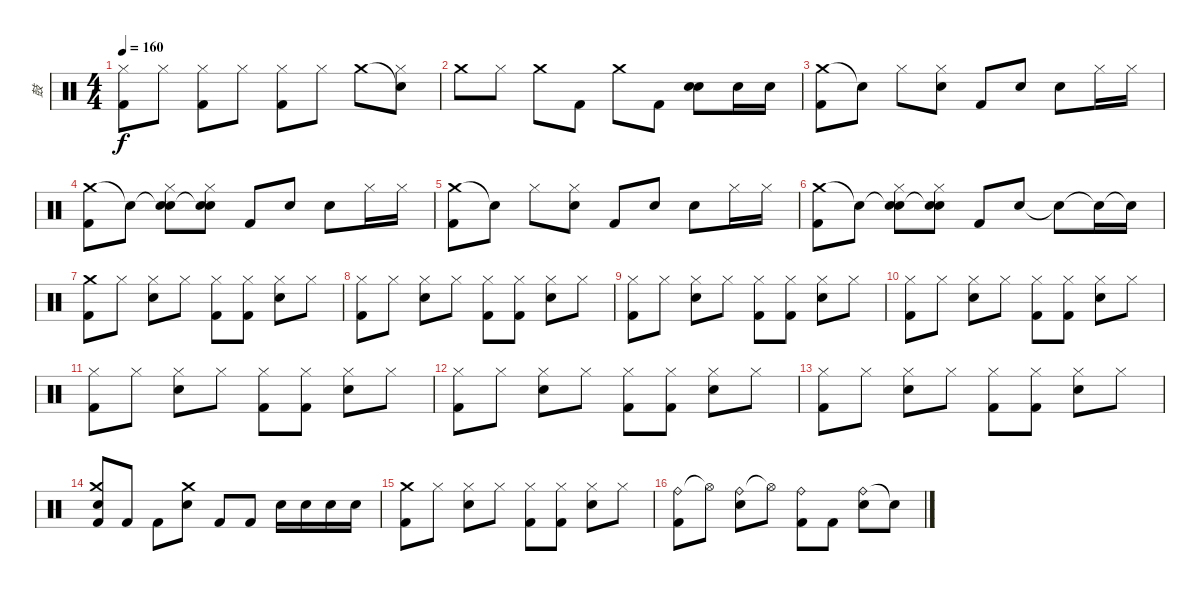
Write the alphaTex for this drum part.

\track ("鼓" "鼓") {instrument percussion}
\staff {score}
\articulation defaults
\ts (4 4)
\tempo 160
\clef neutral
\ks c
("Hi-Hat (closed)" "Kick (hit) 2").8{dy f} "Hi-Hat (closed)".8 ("Hi-Hat (closed)" "Kick (hit) 2").8 "Hi-Hat (closed)".8 ("Hi-Hat (closed)" "Kick (hit) 2").8 "Hi-Hat (closed)".8 "Crash medium (hit)".8 ("Snare (hit)"{t} "Hi-Hat (closed)").8 |
"Crash medium (hit)".8 "Hi-Hat (closed)".8 "Crash medium (hit)".8 "Kick (hit) 2".8 "Crash medium (hit)".8 "Kick (hit) 2".8 ("Electric Snare (hit)" "Electric Snare (hit)").8 "Electric Snare (hit)".16 "Electric Snare (hit)".16 |
("Crash medium (hit)" "Kick (hit) 2").8 "Snare (hit)"{t}.8 "Hi-Hat (closed)".8 ("Hi-Hat (closed)" "Electric Snare (hit)").8 "Kick (hit) 2".8 "Electric Snare (hit)".8 "Electric Snare (hit)".8 "Hi-Hat (closed)".16 "Hi-Hat (closed)".16 |
("Crash medium (hit)" "Kick (hit) 2").8 "Snare (hit)"{t}.8 ("Snare (hit)"{t} "Hi-Hat (closed)" "Electric Snare (hit)").8 ("Snare (hit)"{t} "Hi-Hat (closed)" "Electric Snare (hit)").8 "Kick (hit) 2".8 "Electric Snare (hit)".8 "Electric Snare (hit)".8 "Hi-Hat (closed)".16 "Hi-Hat (closed)".16 |
("Crash medium (hit)" "Kick (hit) 2").8 "Snare (hit)"{t}.8 "Hi-Hat (closed)".8 ("Hi-Hat (closed)" "Electric Snare (hit)").8 "Kick (hit) 2".8 "Electric Snare (hit)".8 "Electric Snare (hit)".8 "Hi-Hat (closed)".16 "Hi-Hat (closed)".16 |
("Crash medium (hit)" "Kick (hit) 2").8 "Snare (hit)"{t}.8 ("Snare (hit)"{t} "Hi-Hat (closed)" "Electric Snare (hit)").8 ("Snare (hit)"{t} "Hi-Hat (closed)" "Electric Snare (hit)").8 "Kick (hit) 2".8 "Electric Snare (hit)".8 "Electric Snare (hit)"{t}.8 "Snare (hit)"{t}.16 "Snare (hit)"{t}.16 |
("Crash medium (hit)" "Kick (hit) 2").8 "Hi-Hat (closed)".8 ("Hi-Hat (closed)" "Electric Snare (hit)").8 "Hi-Hat (closed)".8 ("Hi-Hat (closed)" "Kick (hit) 2").8 ("Hi-Hat (closed)" "Kick (hit) 2").8 ("Hi-Hat (closed)" "Electric Snare (hit)").8 "Hi-Hat (closed)".8 |
("Hi-Hat (closed)" "Kick (hit) 2").8 "Hi-Hat (closed)".8 ("Hi-Hat (closed)" "Electric Snare (hit)").8 "Hi-Hat (closed)".8 ("Hi-Hat (closed)" "Kick (hit) 2").8 ("Hi-Hat (closed)" "Kick (hit) 2").8 ("Hi-Hat (closed)" "Electric Snare (hit)").8 "Hi-Hat (closed)".8 |
("Hi-Hat (closed)" "Kick (hit) 2").8 "Hi-Hat (closed)".8 ("Hi-Hat (closed)" "Electric Snare (hit)").8 "Hi-Hat (closed)".8 ("Hi-Hat (closed)" "Kick (hit) 2").8 ("Hi-Hat (closed)" "Kick (hit) 2").8 ("Hi-Hat (closed)" "Electric Snare (hit)").8 "Hi-Hat (closed)".8 |
("Hi-Hat (closed)" "Kick (hit) 2").8 "Hi-Hat (closed)".8 ("Hi-Hat (closed)" "Electric Snare (hit)").8 "Hi-Hat (closed)".8 ("Hi-Hat (closed)" "Kick (hit) 2").8 ("Hi-Hat (closed)" "Kick (hit) 2").8 ("Hi-Hat (closed)" "Electric Snare (hit)").8 "Hi-Hat (closed)".8 |
("Hi-Hat (closed)" "Kick (hit) 2").8 "Hi-Hat (closed)".8 ("Hi-Hat (closed)" "Electric Snare (hit)").8 "Hi-Hat (closed)".8 ("Hi-Hat (closed)" "Kick (hit) 2").8 ("Hi-Hat (closed)" "Kick (hit) 2").8 ("Hi-Hat (closed)" "Electric Snare (hit)").8 "Hi-Hat (closed)".8 |
("Hi-Hat (closed)" "Kick (hit) 2").8 "Hi-Hat (closed)".8 ("Hi-Hat (closed)" "Electric Snare (hit)").8 "Hi-Hat (closed)".8 ("Hi-Hat (closed)" "Kick (hit) 2").8 ("Hi-Hat (closed)" "Kick (hit) 2").8 ("Hi-Hat (closed)" "Electric Snare (hit)").8 "Hi-Hat (closed)".8 |
("Hi-Hat (closed)" "Kick (hit) 2").8 "Hi-Hat (closed)".8 ("Hi-Hat (closed)" "Electric Snare (hit)").8 "Hi-Hat (closed)".8 ("Hi-Hat (closed)" "Kick (hit) 2").8 ("Hi-Hat (closed)" "Kick (hit) 2").8 ("Hi-Hat (closed)" "Electric Snare (hit)").8 "Hi-Hat (closed)".8 |
("Crash medium (hit)" "Electric Snare (hit)" "Kick (hit) 2").8 "Kick (hit) 2".8 "Kick (hit) 2".8 ("Crash medium (hit)" "Electric Snare (hit)").8 "Kick (hit) 2".8 "Kick (hit) 2".8 "Electric Snare (hit)".16 "Electric Snare (hit)".16 "Electric Snare (hit)".16 "Electric Snare (hit)".16 |
("Crash medium (hit)" "Kick (hit) 2").8 "Hi-Hat (closed)".8 ("Hi-Hat (closed)" "Electric Snare (hit)").8 "Hi-Hat (closed)".8 ("Hi-Hat (closed)" "Kick (hit) 2").8 ("Hi-Hat (closed)" "Kick (hit) 2").8 ("Hi-Hat (closed)" "Electric Snare (hit)").8 "Hi-Hat (closed)".8 |
("Ride (bell)" "Kick (hit) 2").8 "Hi-Hat (open)"{t}.8 ("Ride (bell)" "Electric Snare (hit)").8 "Hi-Hat (open)"{t}.8 ("Ride (bell)" "Kick (hit) 2").8 "Kick (hit) 2".8 ("Ride (bell)" "Electric Snare (hit)").8 "Snare (hit)"{t}.8
